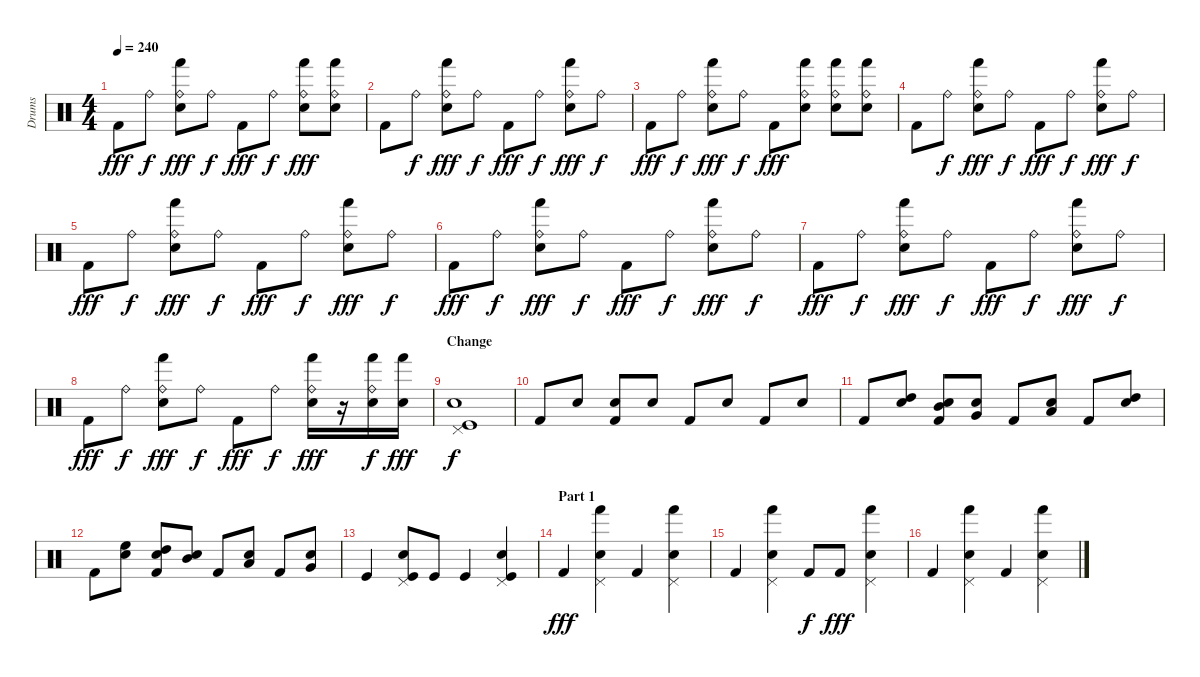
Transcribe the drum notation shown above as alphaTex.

\track ("Drums" "Drums") {instrument percussion}
\staff {score}
\articulation defaults
\ts (4 4)
\tempo 240
\clef neutral
\ks c "Kick (hit) 2".8{dy fff} "Ride (bell)".8{dy f}
("Ride (bell)" "Hand (hit)" "Electric Snare (hit)").8{dy fff} "Ride (bell)".8{dy f} "Kick (hit) 2".8{dy fff} "Ride (bell)".8{dy f} ("Ride (bell)" "Hand (hit)" "Electric Snare (hit)").8{dy fff} ("Ride (bell)" "Hand (hit)" "Electric Snare (hit)").8 |
"Kick (hit) 2".8 "Ride (bell)".8{dy f} ("Ride (bell)" "Hand (hit)" "Electric Snare (hit)").8{dy fff} "Ride (bell)".8{dy f} "Kick (hit) 2".8{dy fff} "Ride (bell)".8{dy f} ("Ride (bell)" "Hand (hit)" "Electric Snare (hit)").8{dy fff} "Ride (bell)".8{dy f} |
"Kick (hit) 2".8{dy fff} "Ride (bell)".8{dy f} ("Ride (bell)" "Hand (hit)" "Electric Snare (hit)").8{dy fff} "Ride (bell)".8{dy f} "Kick (hit) 2".8{dy fff} ("Ride (bell)" "Hand (hit)" "Electric Snare (hit)").8 ("Ride (bell)" "Hand (hit)" "Electric Snare (hit)").8 ("Ride (bell)" "Hand (hit)" "Electric Snare (hit)").8 |
"Kick (hit) 2".8 "Ride (bell)".8{dy f} ("Ride (bell)" "Hand (hit)" "Electric Snare (hit)").8{dy fff} "Ride (bell)".8{dy f} "Kick (hit) 2".8{dy fff} "Ride (bell)".8{dy f} ("Ride (bell)" "Hand (hit)" "Electric Snare (hit)").8{dy fff} "Ride (bell)".8{dy f} |
"Kick (hit) 2".8{dy fff} "Ride (bell)".8{dy f} ("Ride (bell)" "Hand (hit)" "Electric Snare (hit)").8{dy fff} "Ride (bell)".8{dy f} "Kick (hit) 2".8{dy fff} "Ride (bell)".8{dy f} ("Ride (bell)" "Hand (hit)" "Electric Snare (hit)").8{dy fff} "Ride (bell)".8{dy f} |
"Kick (hit) 2".8{dy fff} "Ride (bell)".8{dy f} ("Ride (bell)" "Hand (hit)" "Electric Snare (hit)").8{dy fff} "Ride (bell)".8{dy f} "Kick (hit) 2".8{dy fff} "Ride (bell)".8{dy f} ("Ride (bell)" "Hand (hit)" "Electric Snare (hit)").8{dy fff} "Ride (bell)".8{dy f} |
"Kick (hit) 2".8{dy fff} "Ride (bell)".8{dy f} ("Ride (bell)" "Hand (hit)" "Electric Snare (hit)").8{dy fff} "Ride (bell)".8{dy f} "Kick (hit) 2".8{dy fff} "Ride (bell)".8{dy f} ("Ride (bell)" "Hand (hit)" "Electric Snare (hit)").8{dy fff} "Ride (bell)".8{dy f} |
"Kick (hit) 2".8{dy fff} "Ride (bell)".8{dy f} ("Ride (bell)" "Hand (hit)" "Electric Snare (hit)").8{dy fff} "Ride (bell)".8{dy f} "Kick (hit) 2".8{dy fff} "Ride (bell)".8{dy f} ("Ride (bell)" "Hand (hit)" "Electric Snare (hit)").16{dy fff} r.16 ("Ride (bell)" "Hand (hit)" "Electric Snare (hit)").16{dy f} ("Hand (hit)" "Electric Snare (hit)").16{dy fff} |
\section ("" "Change")
("Pedal Hi-Hat (hit)" "Electric Snare (hit)" "Kick (hit)").1{dy f} |
"Kick (hit) 2".8 "Electric Snare (hit)".8 ("Electric Snare (hit)" "Kick (hit) 2").8 "Electric Snare (hit)".8 "Kick (hit) 2".8 "Electric Snare (hit)".8 "Kick (hit) 2".8 "Electric Snare (hit)".8 |
"Kick (hit) 2".8 ("High Tom (hit)" "Snare (hit) 2").8 ("Mid Tom (hit)" "Electric Snare (hit)" "Kick (hit) 2").8 ("Very Low Tom (hit)" "Electric Snare (hit)").8 "Kick (hit) 2".8 ("Low Tom (hit)" "Electric Snare (hit)").8 "Kick (hit) 2".8 ("High Tom (hit)" "Electric Snare (hit)").8 |
"Kick (hit) 2".8 ("High Floor Tom (hit)" "Snare (hit) 2").8 ("High Tom (hit)" "Electric Snare (hit)" "Kick (hit) 2").8 ("Mid Tom (hit)" "Electric Snare (hit)").8 "Kick (hit) 2".8 ("Low Tom (hit)" "Electric Snare (hit)").8 "Kick (hit) 2".8 ("Very Low Tom (hit)" "Electric Snare (hit)").8 |
"Kick (hit)".4 ("Pedal Hi-Hat (hit)" "Electric Snare (hit)" "Kick (hit)").8 "Kick (hit)".8 "Kick (hit)".4 ("Pedal Hi-Hat (hit)" "Electric Snare (hit)" "Kick (hit)").4 |
\section ("" "Part 1")
"Kick (hit) 2".4{dy fff} ("Pedal Hi-Hat (hit)" "Hand (hit)" "Electric Snare (hit)").4 "Kick (hit) 2".4 ("Pedal Hi-Hat (hit)" "Hand (hit)" "Electric Snare (hit)").4 |
"Kick (hit) 2".4 ("Pedal Hi-Hat (hit)" "Hand (hit)" "Electric Snare (hit)").4 "Kick (hit) 2".8{dy f} "Kick (hit) 2".8{dy fff} ("Pedal Hi-Hat (hit)" "Hand (hit)" "Electric Snare (hit)").4 |
"Kick (hit) 2".4 ("Pedal Hi-Hat (hit)" "Hand (hit)" "Electric Snare (hit)").4 "Kick (hit) 2".4 ("Pedal Hi-Hat (hit)" "Hand (hit)" "Electric Snare (hit)").4
